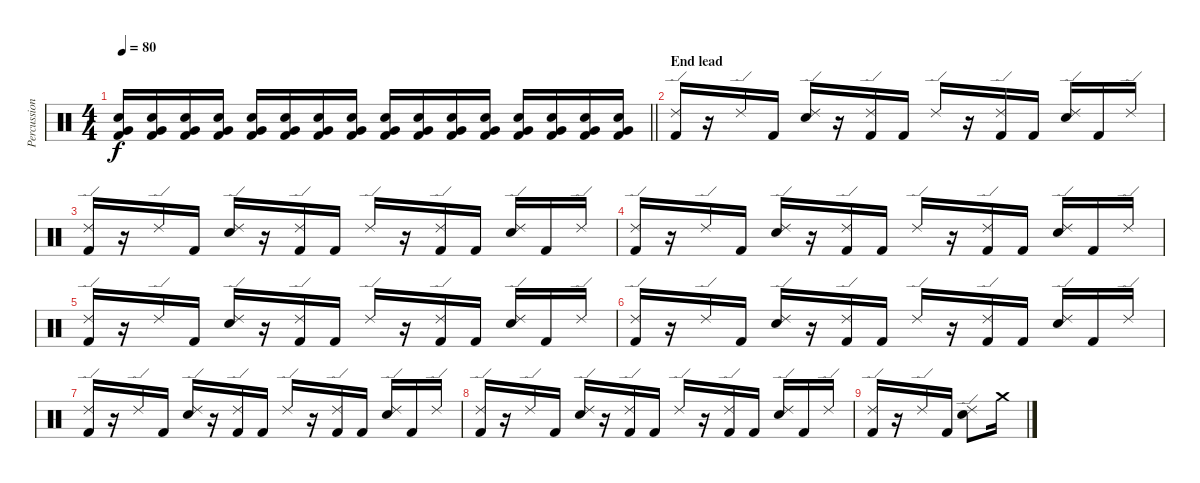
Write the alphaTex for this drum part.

\track ("Percussion" "Percussion") {instrument percussion}
\staff {score}
\articulation defaults
\ts (4 4)
\tempo 80
\clef neutral
\barLineRight lightlight
\ks c
("Very Low Tom (hit)" "Kick (hit) 2" "Electric Snare (hit)").16{dy f} ("Very Low Tom (hit)" "Kick (hit) 2" "Electric Snare (hit)").16 ("Very Low Tom (hit)" "Kick (hit) 2" "Electric Snare (hit)").16 ("Very Low Tom (hit)" "Kick (hit) 2" "Electric Snare (hit)").16 ("Very Low Tom (hit)" "Kick (hit) 2" "Electric Snare (hit)").16 ("Very Low Tom (hit)" "Kick (hit) 2" "Electric Snare (hit)").16 ("Very Low Tom (hit)" "Kick (hit) 2" "Electric Snare (hit)").16 ("Very Low Tom (hit)" "Kick (hit) 2" "Electric Snare (hit)").16 ("Very Low Tom (hit)" "Kick (hit) 2" "Electric Snare (hit)").16 ("Very Low Tom (hit)" "Kick (hit) 2" "Electric Snare (hit)").16 ("Very Low Tom (hit)" "Kick (hit) 2" "Electric Snare (hit)").16 ("Very Low Tom (hit)" "Kick (hit) 2" "Electric Snare (hit)").16 ("Very Low Tom (hit)" "Kick (hit) 2" "Electric Snare (hit)").16 ("Very Low Tom (hit)" "Kick (hit) 2" "Electric Snare (hit)").16 ("Very Low Tom (hit)" "Kick (hit) 2" "Electric Snare (hit)").16 ("Very Low Tom (hit)" "Kick (hit) 2" "Electric Snare (hit)").16{volume 14} |
\section ("" "End lead")
("Ride (edge) 2" "Kick (hit) 2").16 r.16 "Ride (edge) 2".16 "Kick (hit) 2".16 ("Ride (edge) 2" "Electric Snare (hit)").16 r.16 ("Ride (edge) 2" "Kick (hit) 2").16 "Kick (hit) 2".16 "Ride (edge) 2".16 r.16 ("Ride (edge) 2" "Kick (hit) 2").16 "Kick (hit) 2".16 ("Ride (edge) 2" "Electric Snare (hit)").16 "Kick (hit) 2".16 "Ride (edge) 2".16 |
("Ride (edge) 2" "Kick (hit) 2").16 r.16 "Ride (edge) 2".16 "Kick (hit) 2".16 ("Ride (edge) 2" "Electric Snare (hit)").16 r.16 ("Ride (edge) 2" "Kick (hit) 2").16 "Kick (hit) 2".16 "Ride (edge) 2".16 r.16 ("Ride (edge) 2" "Kick (hit) 2").16 "Kick (hit) 2".16 ("Ride (edge) 2" "Electric Snare (hit)").16 "Kick (hit) 2".16 "Ride (edge) 2".16 |
("Ride (edge) 2" "Kick (hit) 2").16 r.16 "Ride (edge) 2".16 "Kick (hit) 2".16 ("Ride (edge) 2" "Electric Snare (hit)").16 r.16 ("Ride (edge) 2" "Kick (hit) 2").16 "Kick (hit) 2".16 "Ride (edge) 2".16 r.16 ("Ride (edge) 2" "Kick (hit) 2").16 "Kick (hit) 2".16 ("Ride (edge) 2" "Electric Snare (hit)").16 "Kick (hit) 2".16 "Ride (edge) 2".16 |
("Ride (edge) 2" "Kick (hit) 2").16 r.16 "Ride (edge) 2".16 "Kick (hit) 2".16 ("Ride (edge) 2" "Electric Snare (hit)").16 r.16 ("Ride (edge) 2" "Kick (hit) 2").16 "Kick (hit) 2".16 "Ride (edge) 2".16 r.16 ("Ride (edge) 2" "Kick (hit) 2").16 "Kick (hit) 2".16 ("Ride (edge) 2" "Electric Snare (hit)").16 "Kick (hit) 2".16 "Ride (edge) 2".16 |
("Ride (edge) 2" "Kick (hit) 2").16 r.16 "Ride (edge) 2".16 "Kick (hit) 2".16 ("Ride (edge) 2" "Electric Snare (hit)").16 r.16 ("Ride (edge) 2" "Kick (hit) 2").16 "Kick (hit) 2".16 "Ride (edge) 2".16 r.16 ("Ride (edge) 2" "Kick (hit) 2").16 "Kick (hit) 2".16 ("Ride (edge) 2" "Electric Snare (hit)").16 "Kick (hit) 2".16 "Ride (edge) 2".16 |
("Ride (edge) 2" "Kick (hit) 2").16 r.16 "Ride (edge) 2".16 "Kick (hit) 2".16 ("Ride (edge) 2" "Electric Snare (hit)").16 r.16 ("Ride (edge) 2" "Kick (hit) 2").16 "Kick (hit) 2".16 "Ride (edge) 2".16 r.16 ("Ride (edge) 2" "Kick (hit) 2").16 "Kick (hit) 2".16 ("Ride (edge) 2" "Electric Snare (hit)").16 "Kick (hit) 2".16 "Ride (edge) 2".16 |
("Ride (edge) 2" "Kick (hit) 2").16 r.16 "Ride (edge) 2".16 "Kick (hit) 2".16 ("Ride (edge) 2" "Electric Snare (hit)").16 r.16 ("Ride (edge) 2" "Kick (hit) 2").16 "Kick (hit) 2".16 "Ride (edge) 2".16 r.16 ("Ride (edge) 2" "Kick (hit) 2").16 "Kick (hit) 2".16 ("Ride (edge) 2" "Electric Snare (hit)").16 "Kick (hit) 2".16 "Ride (edge) 2".16 |
("Ride (edge) 2" "Kick (hit) 2").16 r.16 "Ride (edge) 2".16 "Kick (hit) 2".16 ("Ride (edge) 2" "Electric Snare (hit)").8 "Crash medium (hit)".16
